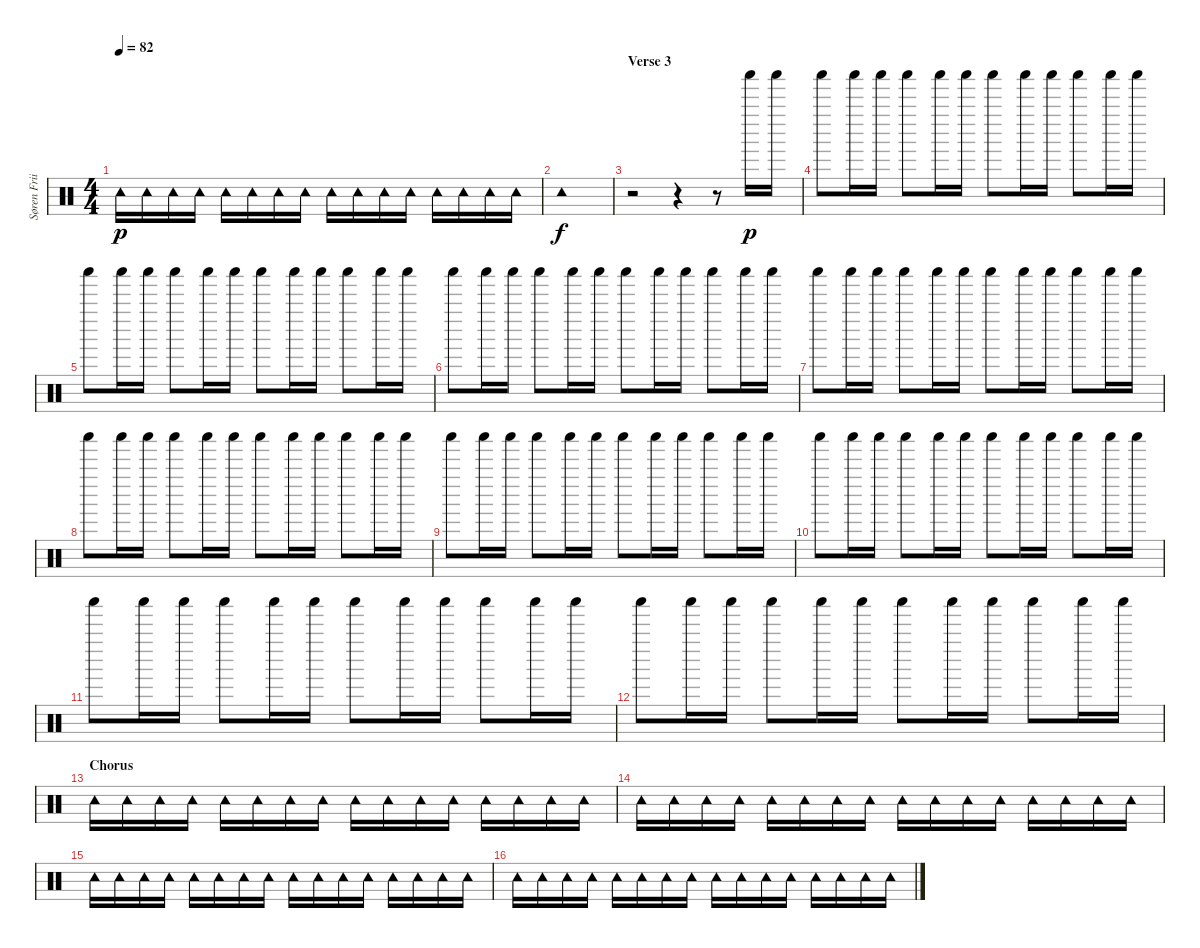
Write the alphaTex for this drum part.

\track ("Søren Friis 2" "Søren Frii") {instrument percussion}
\staff {score}
\articulation defaults
\ts (4 4)
\tempo 82
\clef neutral
\ks c "Tambourine (hit)".16{dy p} "Tambourine (hit)".16 "Tambourine (hit)".16 "Tambourine (hit)".16 "Tambourine (hit)".16 "Tambourine (hit)".16 "Tambourine (hit)".16 "Tambourine (hit)".16 "Tambourine (hit)".16 "Tambourine (hit)".16 "Tambourine (hit)".16 "Tambourine (hit)".16 "Tambourine (hit)".16 "Tambourine (hit)".16 "Tambourine (hit)".16 "Tambourine (hit)".16
|
"Tambourine (hit)".1{dy f} |
\section ("" "Verse 3")
r.2 r.4 r.8 "Shaker (hit)".16{dy p} "Shaker (hit)".16 |
"Shaker (hit)".8 "Shaker (hit)".16 "Shaker (hit)".16 "Shaker (hit)".8 "Shaker (hit)".16 "Shaker (hit)".16 "Shaker (hit)".8 "Shaker (hit)".16 "Shaker (hit)".16 "Shaker (hit)".8 "Shaker (hit)".16 "Shaker (hit)".16 |
"Shaker (hit)".8 "Shaker (hit)".16 "Shaker (hit)".16 "Shaker (hit)".8 "Shaker (hit)".16 "Shaker (hit)".16 "Shaker (hit)".8 "Shaker (hit)".16 "Shaker (hit)".16 "Shaker (hit)".8 "Shaker (hit)".16 "Shaker (hit)".16 |
"Shaker (hit)".8 "Shaker (hit)".16 "Shaker (hit)".16 "Shaker (hit)".8 "Shaker (hit)".16 "Shaker (hit)".16 "Shaker (hit)".8 "Shaker (hit)".16 "Shaker (hit)".16 "Shaker (hit)".8 "Shaker (hit)".16 "Shaker (hit)".16 |
"Shaker (hit)".8 "Shaker (hit)".16 "Shaker (hit)".16 "Shaker (hit)".8 "Shaker (hit)".16 "Shaker (hit)".16 "Shaker (hit)".8 "Shaker (hit)".16 "Shaker (hit)".16 "Shaker (hit)".8 "Shaker (hit)".16 "Shaker (hit)".16 |
"Shaker (hit)".8 "Shaker (hit)".16 "Shaker (hit)".16 "Shaker (hit)".8 "Shaker (hit)".16 "Shaker (hit)".16 "Shaker (hit)".8 "Shaker (hit)".16 "Shaker (hit)".16 "Shaker (hit)".8 "Shaker (hit)".16 "Shaker (hit)".16 |
"Shaker (hit)".8 "Shaker (hit)".16 "Shaker (hit)".16 "Shaker (hit)".8 "Shaker (hit)".16 "Shaker (hit)".16 "Shaker (hit)".8 "Shaker (hit)".16 "Shaker (hit)".16 "Shaker (hit)".8 "Shaker (hit)".16 "Shaker (hit)".16 |
"Shaker (hit)".8 "Shaker (hit)".16 "Shaker (hit)".16 "Shaker (hit)".8 "Shaker (hit)".16 "Shaker (hit)".16 "Shaker (hit)".8 "Shaker (hit)".16 "Shaker (hit)".16 "Shaker (hit)".8 "Shaker (hit)".16 "Shaker (hit)".16 |
"Shaker (hit)".8 "Shaker (hit)".16 "Shaker (hit)".16 "Shaker (hit)".8 "Shaker (hit)".16 "Shaker (hit)".16 "Shaker (hit)".8 "Shaker (hit)".16 "Shaker (hit)".16 "Shaker (hit)".8 "Shaker (hit)".16 "Shaker (hit)".16 |
"Shaker (hit)".8 "Shaker (hit)".16 "Shaker (hit)".16 "Shaker (hit)".8 "Shaker (hit)".16 "Shaker (hit)".16 "Shaker (hit)".8 "Shaker (hit)".16 "Shaker (hit)".16 "Shaker (hit)".8 "Shaker (hit)".16 "Shaker (hit)".16 |
\section ("" "Chorus")
"Tambourine (hit)".16 "Tambourine (hit)".16 "Tambourine (hit)".16 "Tambourine (hit)".16 "Tambourine (hit)".16 "Tambourine (hit)".16 "Tambourine (hit)".16 "Tambourine (hit)".16 "Tambourine (hit)".16 "Tambourine (hit)".16 "Tambourine (hit)".16 "Tambourine (hit)".16 "Tambourine (hit)".16 "Tambourine (hit)".16 "Tambourine (hit)".16 "Tambourine (hit)".16 |
"Tambourine (hit)".16 "Tambourine (hit)".16 "Tambourine (hit)".16 "Tambourine (hit)".16 "Tambourine (hit)".16 "Tambourine (hit)".16 "Tambourine (hit)".16 "Tambourine (hit)".16 "Tambourine (hit)".16 "Tambourine (hit)".16 "Tambourine (hit)".16 "Tambourine (hit)".16 "Tambourine (hit)".16 "Tambourine (hit)".16 "Tambourine (hit)".16 "Tambourine (hit)".16 |
"Tambourine (hit)".16 "Tambourine (hit)".16 "Tambourine (hit)".16 "Tambourine (hit)".16 "Tambourine (hit)".16 "Tambourine (hit)".16 "Tambourine (hit)".16 "Tambourine (hit)".16 "Tambourine (hit)".16 "Tambourine (hit)".16 "Tambourine (hit)".16 "Tambourine (hit)".16 "Tambourine (hit)".16 "Tambourine (hit)".16 "Tambourine (hit)".16 "Tambourine (hit)".16 |
"Tambourine (hit)".16 "Tambourine (hit)".16 "Tambourine (hit)".16 "Tambourine (hit)".16 "Tambourine (hit)".16 "Tambourine (hit)".16 "Tambourine (hit)".16 "Tambourine (hit)".16 "Tambourine (hit)".16 "Tambourine (hit)".16 "Tambourine (hit)".16 "Tambourine (hit)".16 "Tambourine (hit)".16 "Tambourine (hit)".16 "Tambourine (hit)".16 "Tambourine (hit)".16
